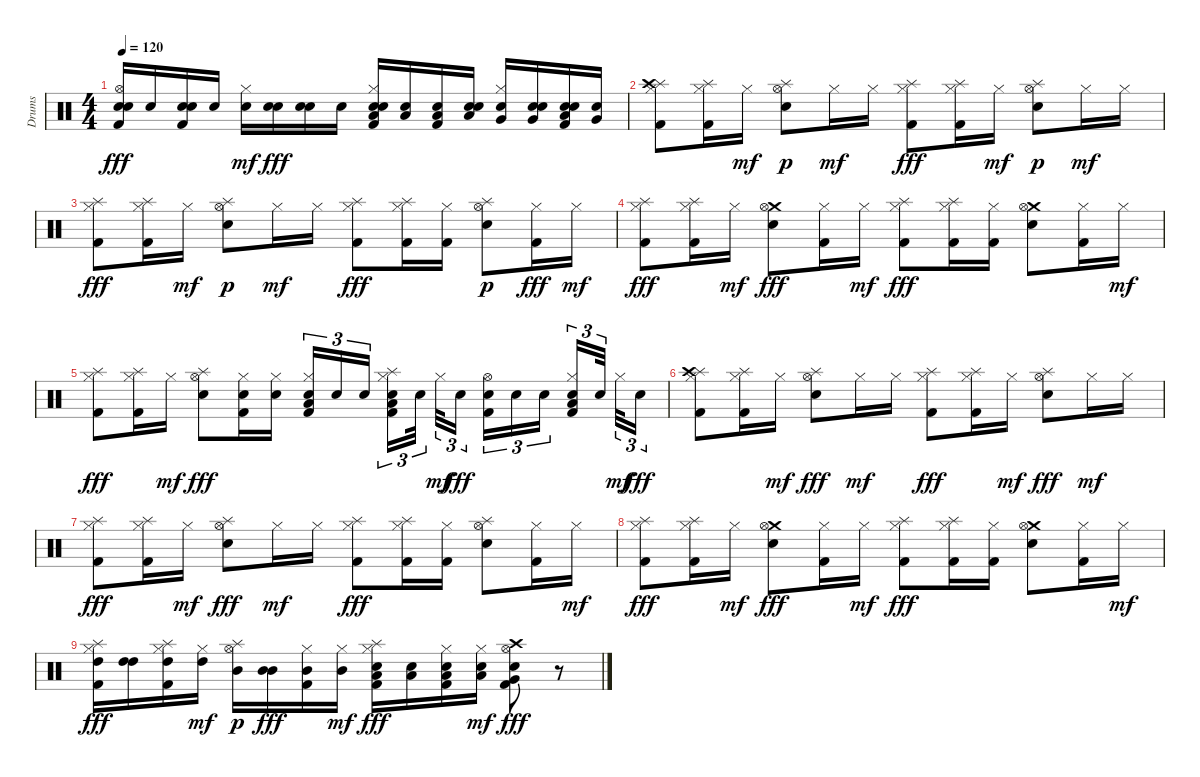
\track ("Drums" "Drums") {instrument percussion}
\staff {score}
\articulation defaults
\ts (4 4)
\tempo 120
\clef neutral
\ks c
("Kick (hit) 2" "Snare (hit) 2" "Hi-Hat (open)" "Electric Snare (hit)").16{dy fff} "Snare (hit) 2".16 ("Kick (hit) 2" "Snare (hit) 2" "Electric Snare (hit)").16 "Snare (hit) 2".16 ("Snare (hit) 2" "Hi-Hat (closed)").16{dy mf} ("Electric Snare (hit)" "Snare (hit) 2").16{dy fff} ("Snare (hit) 2" "Electric Snare (hit)").16 "Snare (hit) 2".16 ("Electric Snare (hit)" "Kick (hit) 2" "Snare (hit) 2" "Hi-Hat (closed)" "Low Tom (hit)").16 ("Snare (hit) 2" "Low Tom (hit)").16 ("Kick (hit) 2" "Snare (hit) 2" "Low Tom (hit)").16 ("Electric Snare (hit)" "Snare (hit) 2" "Low Tom (hit)").16 ("Snare (hit) 2" "Hi-Hat (closed)" "Very Low Tom (hit)").16 ("Electric Snare (hit)" "Snare (hit) 2" "Very Low Tom (hit)").16 ("Kick (hit) 2" "Snare (hit) 2" "Low Floor Tom (hit)" "Electric Snare (hit)").16 ("Snare (hit) 2" "Very Low Tom (hit)").16 |
("Splash (hit)" "Hi-Hat (closed)" "Crash high (hit)" "Kick (hit) 2").8 ("Splash (hit)" "Hi-Hat (closed)" "Kick (hit) 2").16 "Hi-Hat (closed)".16{dy mf} ("Hi-Hat (open)" "Snare (hit) 2" "Splash (hit)").8{dy p} "Hi-Hat (closed)".16{dy mf} "Hi-Hat (closed)".16 ("Splash (hit)" "Hi-Hat (closed)" "Kick (hit) 2").8{dy fff} ("Splash (hit)" "Hi-Hat (closed)" "Kick (hit) 2").16 "Hi-Hat (closed)".16{dy mf} ("Hi-Hat (open)" "Snare (hit) 2" "Splash (hit)").8{dy p} "Hi-Hat (closed)".16{dy mf} "Hi-Hat (closed)".16 |
("Splash (hit)" "Hi-Hat (closed)" "Kick (hit) 2").8{dy fff} ("Splash (hit)" "Hi-Hat (closed)" "Kick (hit) 2").16 "Hi-Hat (closed)".16{dy mf} ("Hi-Hat (open)" "Snare (hit) 2" "Splash (hit)").8{dy p} "Hi-Hat (closed)".16{dy mf} "Hi-Hat (closed)".16 ("Splash (hit)" "Hi-Hat (closed)" "Kick (hit) 2").8{dy fff} ("Splash (hit)" "Hi-Hat (closed)" "Kick (hit) 2").16 ("Hi-Hat (closed)" "Kick (hit) 2").16 ("Hi-Hat (open)" "Snare (hit) 2" "Splash (hit)").8{dy p} ("Hi-Hat (closed)" "Kick (hit) 2").16{dy fff} "Hi-Hat (closed)".16{dy mf} |
("Splash (hit)" "Hi-Hat (closed)" "Kick (hit) 2").8{dy fff} ("Splash (hit)" "Hi-Hat (closed)" "Kick (hit) 2").16 "Hi-Hat (closed)".16{dy mf} ("Crash medium (hit)" "Hi-Hat (open)" "Snare (hit) 2").8{dy fff} ("Hi-Hat (closed)" "Kick (hit) 2").16 "Hi-Hat (closed)".16{dy mf} ("Splash (hit)" "Hi-Hat (closed)" "Kick (hit) 2").8{dy fff} ("Splash (hit)" "Hi-Hat (closed)" "Kick (hit) 2").16 ("Hi-Hat (closed)" "Kick (hit) 2").16 ("Crash medium (hit)" "Hi-Hat (open)" "Snare (hit) 2").8 ("Hi-Hat (closed)" "Kick (hit) 2").16 "Hi-Hat (closed)".16{dy mf} |
("Splash (hit)" "Hi-Hat (closed)" "Kick (hit) 2").8{dy fff} ("Splash (hit)" "Hi-Hat (closed)" "Kick (hit) 2").16 "Hi-Hat (closed)".16{dy mf} ("Splash (hit)" "Hi-Hat (open)" "Snare (hit) 2").8{dy fff} ("Hi-Hat (closed)" "Snare (hit) 2" "Kick (hit) 2").16 ("Hi-Hat (closed)" "Snare (hit) 2").16 ("Snare (hit) 2" "Hi-Hat (closed)" "Low Tom (hit)" "Kick (hit) 2").16{tu (3 2)} "Snare (hit) 2".16{tu (3 2)} "Snare (hit) 2".16{tu (3 2) beam splitsecondary} ("Splash (hit)" "Snare (hit) 2" "Hi-Hat (closed)" "Low Tom (hit)" "Kick (hit) 2").16{tu (3 2)} "Snare (hit) 2".32{tu (3 2) beam splitsecondary} "Hi-Hat (closed)".32{tu (3 2) dy mf} "Snare (hit) 2".16{tu (3 2) dy fff} ("Snare (hit) 2" "Hi-Hat (open)" "Kick (hit) 2").16{tu (3 2)} "Snare (hit) 2".16{tu (3 2)} "Snare (hit) 2".16{tu (3 2) beam splitsecondary} ("Snare (hit) 2" "Hi-Hat (closed)" "Low Tom (hit)" "Kick (hit) 2").16{tu (3 2)} "Snare (hit) 2".32{tu (3 2) beam splitsecondary} "Hi-Hat (closed)".32{tu (3 2) dy mf} "Snare (hit) 2".16{tu (3 2) dy fff} |
("Splash (hit)" "Hi-Hat (closed)" "Crash high (hit)" "Kick (hit) 2").8 ("Splash (hit)" "Hi-Hat (closed)" "Kick (hit) 2").16 "Hi-Hat (closed)".16{dy mf} ("Splash (hit)" "Hi-Hat (open)" "Snare (hit) 2").8{dy fff} "Hi-Hat (closed)".16{dy mf} "Hi-Hat (closed)".16 ("Splash (hit)" "Hi-Hat (closed)" "Kick (hit) 2").8{dy fff} ("Splash (hit)" "Hi-Hat (closed)" "Kick (hit) 2").16 "Hi-Hat (closed)".16{dy mf} ("Splash (hit)" "Hi-Hat (open)" "Snare (hit) 2").8{dy fff} "Hi-Hat (closed)".16{dy mf} "Hi-Hat (closed)".16 |
("Splash (hit)" "Hi-Hat (closed)" "Kick (hit) 2").8{dy fff} ("Splash (hit)" "Hi-Hat (closed)" "Kick (hit) 2").16 "Hi-Hat (closed)".16{dy mf} ("Splash (hit)" "Hi-Hat (open)" "Snare (hit) 2").8{dy fff} "Hi-Hat (closed)".16{dy mf} "Hi-Hat (closed)".16 ("Splash (hit)" "Hi-Hat (closed)" "Kick (hit) 2").8{dy fff} ("Splash (hit)" "Hi-Hat (closed)" "Kick (hit) 2").16 ("Hi-Hat (closed)" "Kick (hit) 2").16 ("Splash (hit)" "Hi-Hat (open)" "Snare (hit) 2").8 ("Hi-Hat (closed)" "Kick (hit) 2").16 "Hi-Hat (closed)".16{dy mf} |
("Splash (hit)" "Hi-Hat (closed)" "Kick (hit) 2").8{dy fff} ("Splash (hit)" "Hi-Hat (closed)" "Kick (hit) 2").16 "Hi-Hat (closed)".16{dy mf} ("Crash medium (hit)" "Hi-Hat (open)" "Snare (hit) 2").8{dy fff} ("Hi-Hat (closed)" "Kick (hit) 2").16 "Hi-Hat (closed)".16{dy mf} ("Splash (hit)" "Hi-Hat (closed)" "Kick (hit) 2").8{dy fff} ("Splash (hit)" "Hi-Hat (closed)" "Kick (hit) 2").16 ("Hi-Hat (closed)" "Kick (hit) 2").16 ("Crash medium (hit)" "Hi-Hat (open)" "Snare (hit) 2").8 ("Hi-Hat (closed)" "Kick (hit) 2").16 "Hi-Hat (closed)".16{dy mf} |
("Splash (hit)" "High Tom (hit)" "Hi-Hat (closed)" "Kick (hit) 2").16{dy fff} ("High Tom (hit)" "High Tom (hit)").16 ("Splash (hit)" "High Tom (hit)" "Hi-Hat (closed)" "Kick (hit) 2").16 ("High Tom (hit)" "Hi-Hat (closed)").16{dy mf} ("Splash (hit)" "Mid Tom (hit)" "Hi-Hat (open)").16{dy p} ("Mid Tom (hit)" "Mid Tom (hit)").16{dy fff} ("Mid Tom (hit)" "Hi-Hat (closed)" "Kick (hit) 2").16 ("Mid Tom (hit)" "Hi-Hat (closed)").16{dy mf} ("Splash (hit)" "Snare (hit) 2" "Low Tom (hit)" "Hi-Hat (closed)" "Kick (hit) 2").16{dy fff} ("Snare (hit) 2" "Low Tom (hit)").16 ("Snare (hit) 2" "Low Tom (hit)" "Hi-Hat (closed)" "Kick (hit) 2").16 ("Snare (hit) 2" "Low Tom (hit)" "Hi-Hat (closed)").16{dy mf} ("Snare (hit) 2" "Crash high (hit)" "Very Low Tom (hit)" "Hi-Hat (open)" "Kick (hit) 2").8{dy fff} r.8
